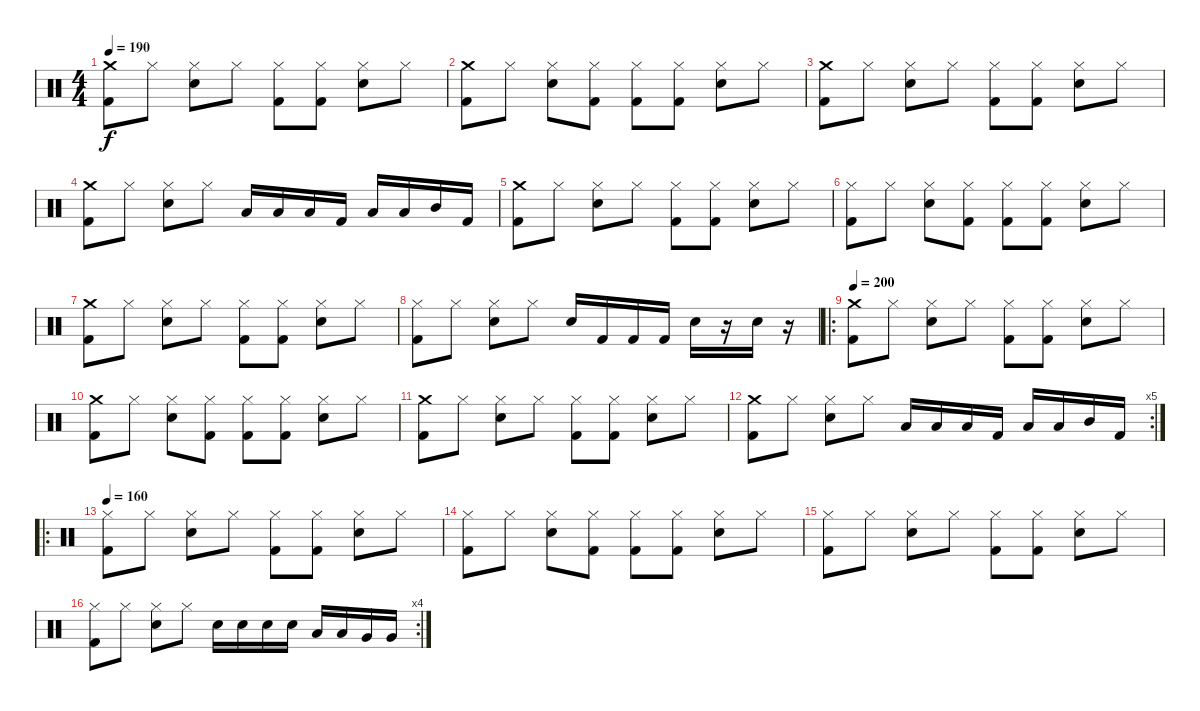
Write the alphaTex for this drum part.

\track "" {solo instrument percussion}
\staff {score}
\articulation defaults
\ts (4 4)
\tempo 190
\clef neutral
\ks c
("Kick (hit) 2" "Crash medium (hit)").8{dy f} "Hi-Hat (closed)".8 ("Electric Snare (hit)" "Hi-Hat (closed)").8 "Hi-Hat (closed)".8 ("Kick (hit) 2" "Hi-Hat (closed)").8 ("Kick (hit) 2" "Hi-Hat (closed)").8 ("Electric Snare (hit)" "Hi-Hat (closed)").8 "Hi-Hat (closed)".8 |
("Kick (hit) 2" "Crash medium (hit)").8 "Hi-Hat (closed)".8 ("Electric Snare (hit)" "Hi-Hat (closed)").8 ("Kick (hit) 2" "Hi-Hat (closed)").8 ("Kick (hit) 2" "Hi-Hat (closed)").8 ("Kick (hit) 2" "Hi-Hat (closed)").8 ("Electric Snare (hit)" "Hi-Hat (closed)").8 "Hi-Hat (closed)".8 |
("Kick (hit) 2" "Crash medium (hit)").8 "Hi-Hat (closed)".8 ("Electric Snare (hit)" "Hi-Hat (closed)").8 "Hi-Hat (closed)".8 ("Kick (hit) 2" "Hi-Hat (closed)").8 ("Kick (hit) 2" "Hi-Hat (closed)").8 ("Electric Snare (hit)" "Hi-Hat (closed)").8 "Hi-Hat (closed)".8 |
("Kick (hit) 2" "Crash medium (hit)").8 "Hi-Hat (closed)".8 ("Electric Snare (hit)" "Hi-Hat (closed)").8 "Hi-Hat (closed)".8 "Low Floor Tom (hit)".16 "Low Floor Tom (hit)".16 "Low Floor Tom (hit)".16 "Kick (hit) 2".16 "Low Tom (hit)".16 "Low Tom (hit)".16 "Mid Tom (hit)".16 "Kick (hit) 2".16 |
("Kick (hit) 2" "Crash medium (hit)").8 "Hi-Hat (closed)".8 ("Electric Snare (hit)" "Hi-Hat (closed)").8 "Hi-Hat (closed)".8 ("Kick (hit) 2" "Hi-Hat (closed)").8 ("Kick (hit) 2" "Hi-Hat (closed)").8 ("Electric Snare (hit)" "Hi-Hat (closed)").8 "Hi-Hat (closed)".8 |
("Kick (hit) 2" "Hi-Hat (closed)").8 "Hi-Hat (closed)".8 ("Electric Snare (hit)" "Hi-Hat (closed)").8 ("Kick (hit) 2" "Hi-Hat (closed)").8 ("Kick (hit) 2" "Hi-Hat (closed)").8 ("Kick (hit) 2" "Hi-Hat (closed)").8 ("Electric Snare (hit)" "Hi-Hat (closed)").8 "Hi-Hat (closed)".8 |
("Kick (hit) 2" "Crash medium (hit)").8 "Hi-Hat (closed)".8 ("Electric Snare (hit)" "Hi-Hat (closed)").8 "Hi-Hat (closed)".8 ("Kick (hit) 2" "Hi-Hat (closed)").8 ("Kick (hit) 2" "Hi-Hat (closed)").8 ("Electric Snare (hit)" "Hi-Hat (closed)").8 "Hi-Hat (closed)".8 |
("Kick (hit) 2" "Hi-Hat (closed)").8 "Hi-Hat (closed)".8 ("Electric Snare (hit)" "Hi-Hat (closed)").8 "Hi-Hat (closed)".8 "Electric Snare (hit)".16 "Kick (hit) 2".16 "Kick (hit) 2".16 "Kick (hit) 2".16 "Electric Snare (hit)".16 r.16 "Electric Snare (hit)".16 r.16 |
\ro
\tempo 200
("Kick (hit) 2" "Crash medium (hit)").8 "Hi-Hat (closed)".8 ("Electric Snare (hit)" "Hi-Hat (closed)").8 "Hi-Hat (closed)".8 ("Kick (hit) 2" "Hi-Hat (closed)").8 ("Kick (hit) 2" "Hi-Hat (closed)").8 ("Electric Snare (hit)" "Hi-Hat (closed)").8 "Hi-Hat (closed)".8 |
("Kick (hit) 2" "Crash medium (hit)").8 "Hi-Hat (closed)".8 ("Electric Snare (hit)" "Hi-Hat (closed)").8 ("Kick (hit) 2" "Hi-Hat (closed)").8 ("Kick (hit) 2" "Hi-Hat (closed)").8 ("Kick (hit) 2" "Hi-Hat (closed)").8 ("Electric Snare (hit)" "Hi-Hat (closed)").8 "Hi-Hat (closed)".8 |
("Kick (hit) 2" "Crash medium (hit)").8 "Hi-Hat (closed)".8 ("Electric Snare (hit)" "Hi-Hat (closed)").8 "Hi-Hat (closed)".8 ("Kick (hit) 2" "Hi-Hat (closed)").8 ("Kick (hit) 2" "Hi-Hat (closed)").8 ("Electric Snare (hit)" "Hi-Hat (closed)").8 "Hi-Hat (closed)".8 |
\rc 5
("Kick (hit) 2" "Crash medium (hit)").8 "Hi-Hat (closed)".8 ("Electric Snare (hit)" "Hi-Hat (closed)").8 "Hi-Hat (closed)".8 "Low Floor Tom (hit)".16 "Low Floor Tom (hit)".16 "Low Floor Tom (hit)".16 "Kick (hit) 2".16 "Low Tom (hit)".16 "Low Tom (hit)".16 "Mid Tom (hit)".16 "Kick (hit) 2".16 |
\ro
\tempo 160
("Kick (hit) 2" "Hi-Hat (closed)").8 "Hi-Hat (closed)".8 ("Electric Snare (hit)" "Hi-Hat (closed)").8 "Hi-Hat (closed)".8 ("Kick (hit) 2" "Hi-Hat (closed)").8 ("Kick (hit) 2" "Hi-Hat (closed)").8 ("Electric Snare (hit)" "Hi-Hat (closed)").8 "Hi-Hat (closed)".8 |
("Kick (hit) 2" "Hi-Hat (closed)").8 "Hi-Hat (closed)".8 ("Electric Snare (hit)" "Hi-Hat (closed)").8 ("Kick (hit) 2" "Hi-Hat (closed)").8 ("Kick (hit) 2" "Hi-Hat (closed)").8 ("Kick (hit) 2" "Hi-Hat (closed)").8 ("Electric Snare (hit)" "Hi-Hat (closed)").8 "Hi-Hat (closed)".8 |
("Kick (hit) 2" "Hi-Hat (closed)").8 "Hi-Hat (closed)".8 ("Electric Snare (hit)" "Hi-Hat (closed)").8 "Hi-Hat (closed)".8 ("Kick (hit) 2" "Hi-Hat (closed)").8 ("Kick (hit) 2" "Hi-Hat (closed)").8 ("Electric Snare (hit)" "Hi-Hat (closed)").8 "Hi-Hat (closed)".8 |
\rc 4
("Kick (hit) 2" "Hi-Hat (closed)").8 "Hi-Hat (closed)".8 ("Electric Snare (hit)" "Hi-Hat (closed)").8 "Hi-Hat (closed)".8 "Electric Snare (hit)".16 "Electric Snare (hit)".16 "Electric Snare (hit)".16 "Electric Snare (hit)".16 "Low Floor Tom (hit)".16 "Low Floor Tom (hit)".16 "Very Low Tom (hit)".16 "Very Low Tom (hit)".16
